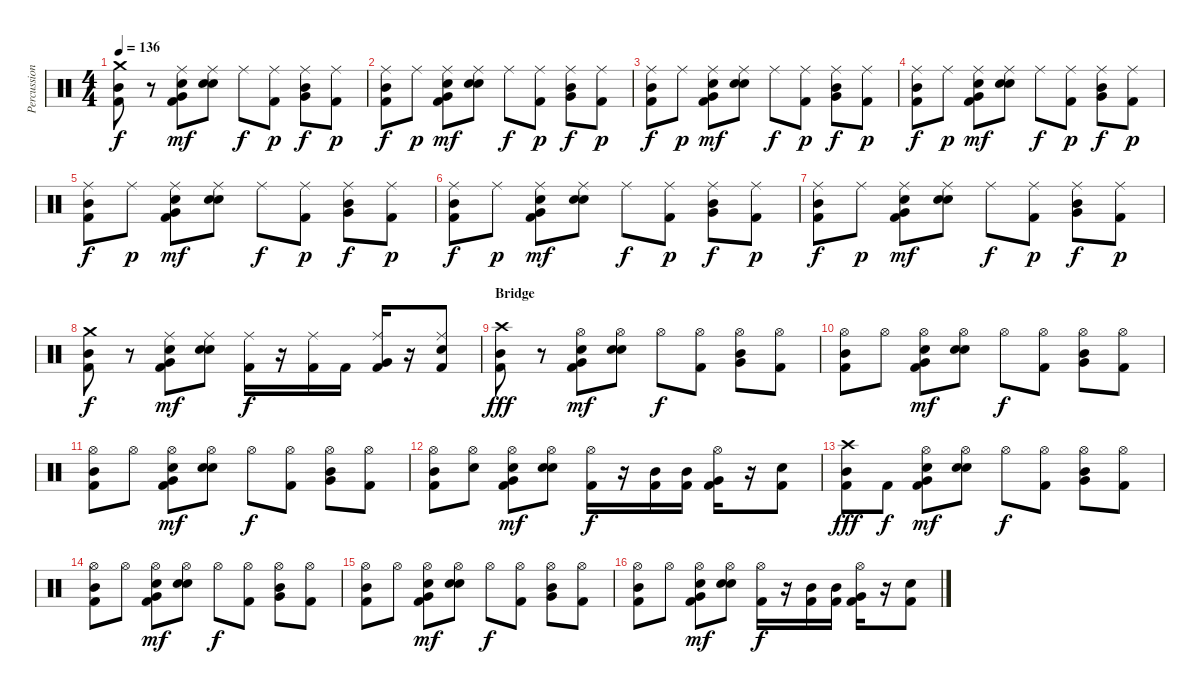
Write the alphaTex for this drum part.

\track ("Percussion" "Percussion") {instrument percussion}
\staff {score}
\articulation defaults
\ts (4 4)
\tempo 136
\clef neutral
\ks c
("Crash medium (hit)" "Mid Tom (hit)" "Kick (hit) 2").8{dy f} r.8 ("Ride (middle)" "Hand Clap (hit)" "Very Low Tom (hit)" "Kick (hit) 2").8{dy mf} ("Ride (middle)" "Hand Clap (hit)" "Snare (hit) 2").8 "Ride (middle)".8{dy f} ("Ride (middle)" "Kick (hit) 2").8{dy p} ("Ride (middle)" "Mid Tom (hit)" "Very Low Tom (hit)").8{dy f} ("Ride (middle)" "Kick (hit) 2").8{dy p} |
("Ride (middle)" "Mid Tom (hit)" "Kick (hit) 2").8{dy f} "Ride (middle)".8{dy p} ("Ride (middle)" "Hand Clap (hit)" "Very Low Tom (hit)" "Kick (hit) 2").8{dy mf} ("Ride (middle)" "Hand Clap (hit)" "Snare (hit) 2").8 "Ride (middle)".8{dy f} ("Ride (middle)" "Kick (hit) 2").8{dy p} ("Ride (middle)" "Mid Tom (hit)" "Very Low Tom (hit)").8{dy f} ("Ride (middle)" "Kick (hit) 2").8{dy p} |
("Ride (middle)" "Mid Tom (hit)" "Kick (hit) 2").8{dy f} "Ride (middle)".8{dy p} ("Ride (middle)" "Hand Clap (hit)" "Very Low Tom (hit)" "Kick (hit) 2").8{dy mf} ("Ride (middle)" "Hand Clap (hit)" "Snare (hit) 2").8 "Ride (middle)".8{dy f} ("Ride (middle)" "Kick (hit) 2").8{dy p} ("Ride (middle)" "Mid Tom (hit)" "Very Low Tom (hit)").8{dy f} ("Ride (middle)" "Kick (hit) 2").8{dy p} |
("Ride (middle)" "Mid Tom (hit)" "Kick (hit) 2").8{dy f} "Ride (middle)".8{dy p} ("Ride (middle)" "Hand Clap (hit)" "Very Low Tom (hit)" "Kick (hit) 2").8{dy mf} ("Ride (middle)" "Hand Clap (hit)" "Snare (hit) 2").8 "Ride (middle)".8{dy f} ("Ride (middle)" "Kick (hit) 2").8{dy p} ("Ride (middle)" "Mid Tom (hit)" "Very Low Tom (hit)").8{dy f} ("Ride (middle)" "Kick (hit) 2").8{dy p} |
("Ride (middle)" "Mid Tom (hit)" "Kick (hit) 2").8{dy f} "Ride (middle)".8{dy p} ("Ride (middle)" "Hand Clap (hit)" "Very Low Tom (hit)" "Kick (hit) 2").8{dy mf} ("Ride (middle)" "Hand Clap (hit)" "Snare (hit) 2").8 "Ride (middle)".8{dy f} ("Ride (middle)" "Kick (hit) 2").8{dy p} ("Ride (middle)" "Mid Tom (hit)" "Very Low Tom (hit)").8{dy f} ("Ride (middle)" "Kick (hit) 2").8{dy p} |
("Ride (middle)" "Mid Tom (hit)" "Kick (hit) 2").8{dy f} "Ride (middle)".8{dy p} ("Ride (middle)" "Hand Clap (hit)" "Very Low Tom (hit)" "Kick (hit) 2").8{dy mf} ("Ride (middle)" "Hand Clap (hit)" "Snare (hit) 2").8 "Ride (middle)".8{dy f} ("Ride (middle)" "Kick (hit) 2").8{dy p} ("Ride (middle)" "Mid Tom (hit)" "Very Low Tom (hit)").8{dy f} ("Ride (middle)" "Kick (hit) 2").8{dy p} |
("Ride (middle)" "Mid Tom (hit)" "Kick (hit) 2").8{dy f} "Ride (middle)".8{dy p} ("Ride (middle)" "Hand Clap (hit)" "Very Low Tom (hit)" "Kick (hit) 2").8{dy mf} ("Ride (middle)" "Hand Clap (hit)" "Snare (hit) 2").8 "Ride (middle)".8{dy f} ("Ride (middle)" "Kick (hit) 2").8{dy p} ("Ride (middle)" "Mid Tom (hit)" "Very Low Tom (hit)").8{dy f} ("Ride (middle)" "Kick (hit) 2").8{dy p} |
("Crash medium (hit)" "Mid Tom (hit)" "Kick (hit) 2").8{dy f} r.8 ("Ride (middle)" "Hand Clap (hit)" "Very Low Tom (hit)" "Kick (hit) 2").8{dy mf} ("Ride (middle)" "Hand Clap (hit)" "Snare (hit) 2").8 ("Ride (middle)" "Kick (hit) 2").16{dy f} r.16 ("Ride (middle)" "Kick (hit) 2").16 "Kick (hit) 2".16 ("Ride (middle)" "Very Low Tom (hit)" "Kick (hit) 2").16 r.16 ("Ride (middle)" "Snare (hit) 2" "Kick (hit) 2").8 |
\section ("" "Bridge")
("Crash high (hit)" "Mid Tom (hit)" "Kick (hit) 2").8{dy fff} r.8 ("Hi-Hat (open)" "Hand Clap (hit)" "Very Low Tom (hit)" "Kick (hit) 2").8{dy mf} ("Hi-Hat (open)" "Hand Clap (hit)" "Snare (hit) 2").8 "Hi-Hat (open)".8{dy f} ("Hi-Hat (open)" "Kick (hit) 2").8 ("Hi-Hat (open)" "Mid Tom (hit)" "Very Low Tom (hit)").8 ("Hi-Hat (open)" "Kick (hit) 2").8 |
("Hi-Hat (open)" "Mid Tom (hit)" "Kick (hit) 2").8 "Hi-Hat (open)".8 ("Hi-Hat (open)" "Hand Clap (hit)" "Very Low Tom (hit)" "Kick (hit) 2").8{dy mf} ("Hi-Hat (open)" "Hand Clap (hit)" "Snare (hit) 2").8 "Hi-Hat (open)".8{dy f} ("Hi-Hat (open)" "Kick (hit) 2").8 ("Hi-Hat (open)" "Mid Tom (hit)" "Very Low Tom (hit)").8 ("Hi-Hat (open)" "Kick (hit) 2").8 |
("Hi-Hat (open)" "Mid Tom (hit)" "Kick (hit) 2").8 "Hi-Hat (open)".8 ("Hi-Hat (open)" "Hand Clap (hit)" "Very Low Tom (hit)" "Kick (hit) 2").8{dy mf} ("Hi-Hat (open)" "Hand Clap (hit)" "Snare (hit) 2").8 "Hi-Hat (open)".8{dy f} ("Hi-Hat (open)" "Kick (hit) 2").8 ("Hi-Hat (open)" "Mid Tom (hit)" "Very Low Tom (hit)").8 ("Hi-Hat (open)" "Kick (hit) 2").8 |
("Hi-Hat (open)" "Mid Tom (hit)" "Kick (hit) 2").8 ("Hi-Hat (open)" "Snare (hit) 2").8 ("Hi-Hat (open)" "Hand Clap (hit)" "Very Low Tom (hit)" "Kick (hit) 2").8{dy mf} ("Hi-Hat (open)" "Hand Clap (hit)" "Snare (hit) 2").8 ("Hi-Hat (open)" "Kick (hit) 2").16{dy f} r.16 ("Mid Tom (hit)" "Kick (hit) 2").16 ("Mid Tom (hit)" "Kick (hit) 2").16 ("Hi-Hat (open)" "Very Low Tom (hit)" "Kick (hit) 2").16 r.16 ("Snare (hit) 2" "Kick (hit) 2").8 |
("Crash high (hit)" "Mid Tom (hit)" "Kick (hit) 2").8{dy fff} "Kick (hit) 2".8{dy f} ("Hi-Hat (open)" "Hand Clap (hit)" "Very Low Tom (hit)" "Kick (hit) 2").8{dy mf} ("Hi-Hat (open)" "Hand Clap (hit)" "Snare (hit) 2").8 "Hi-Hat (open)".8{dy f} ("Hi-Hat (open)" "Kick (hit) 2").8 ("Hi-Hat (open)" "Mid Tom (hit)" "Very Low Tom (hit)").8 ("Hi-Hat (open)" "Kick (hit) 2").8 |
("Hi-Hat (open)" "Mid Tom (hit)" "Kick (hit) 2").8 "Hi-Hat (open)".8 ("Hi-Hat (open)" "Hand Clap (hit)" "Very Low Tom (hit)" "Kick (hit) 2").8{dy mf} ("Hi-Hat (open)" "Hand Clap (hit)" "Snare (hit) 2").8 "Hi-Hat (open)".8{dy f} ("Hi-Hat (open)" "Kick (hit) 2").8 ("Hi-Hat (open)" "Mid Tom (hit)" "Very Low Tom (hit)").8 ("Hi-Hat (open)" "Kick (hit) 2").8 |
("Hi-Hat (open)" "Mid Tom (hit)" "Kick (hit) 2").8 "Hi-Hat (open)".8 ("Hi-Hat (open)" "Hand Clap (hit)" "Very Low Tom (hit)" "Kick (hit) 2").8{dy mf} ("Hi-Hat (open)" "Hand Clap (hit)" "Snare (hit) 2").8 "Hi-Hat (open)".8{dy f} ("Hi-Hat (open)" "Kick (hit) 2").8 ("Hi-Hat (open)" "Mid Tom (hit)" "Very Low Tom (hit)").8 ("Hi-Hat (open)" "Kick (hit) 2").8 |
("Hi-Hat (open)" "Mid Tom (hit)" "Kick (hit) 2").8 "Hi-Hat (open)".8 ("Hi-Hat (open)" "Hand Clap (hit)" "Very Low Tom (hit)" "Kick (hit) 2").8{dy mf} ("Hi-Hat (open)" "Hand Clap (hit)" "Snare (hit) 2").8 ("Hi-Hat (open)" "Kick (hit) 2").16{dy f} r.16 ("Mid Tom (hit)" "Kick (hit) 2").16 ("Mid Tom (hit)" "Kick (hit) 2").16 ("Hi-Hat (open)" "Very Low Tom (hit)" "Kick (hit) 2").16 r.16 ("Snare (hit) 2" "Kick (hit) 2").8
